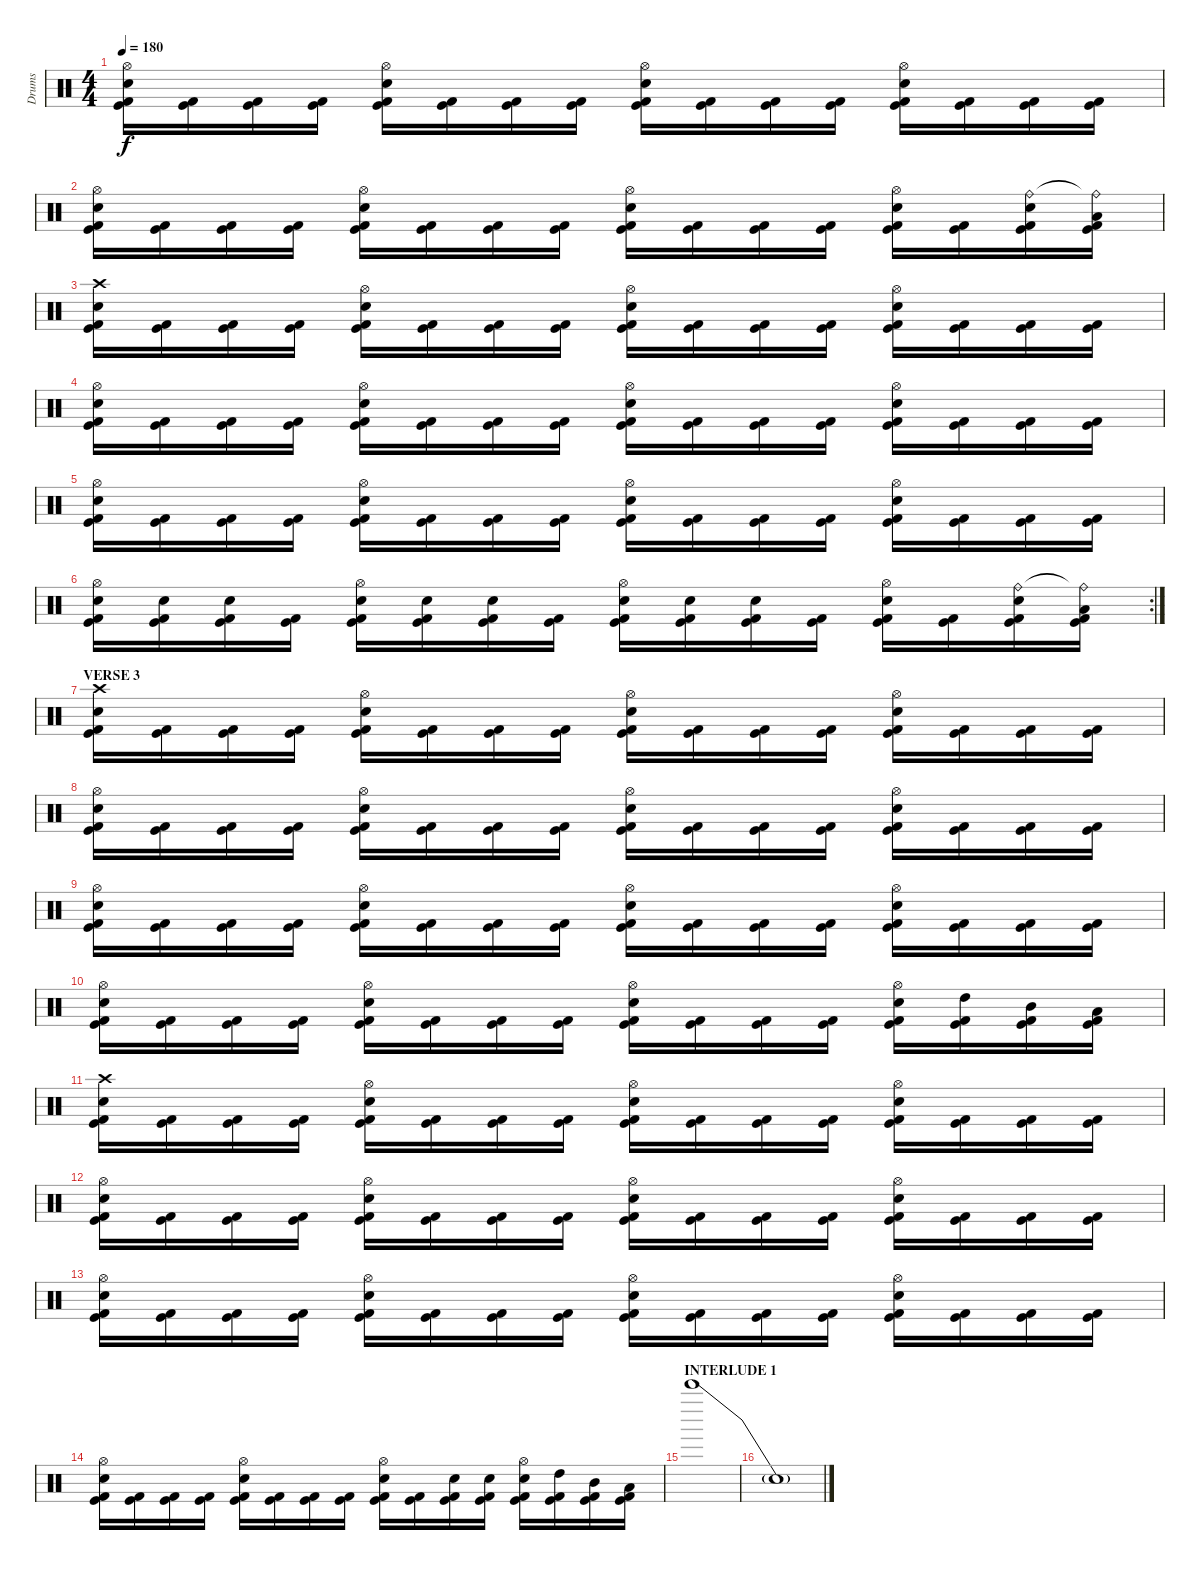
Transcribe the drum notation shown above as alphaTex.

\track ("Drums" "Drums") {instrument percussion}
\staff {score}
\articulation defaults
\ts (4 4)
\tempo 180
\clef neutral
\ks c
("Hi-Hat (open)" "Electric Snare (hit)" "Kick (hit)" "Kick (hit) 2").16{dy f} ("Kick (hit)" "Kick (hit) 2").16 ("Kick (hit)" "Kick (hit) 2").16 ("Kick (hit)" "Kick (hit) 2").16 ("Hi-Hat (open)" "Electric Snare (hit)" "Kick (hit)" "Kick (hit) 2").16 ("Kick (hit)" "Kick (hit) 2").16 ("Kick (hit)" "Kick (hit) 2").16 ("Kick (hit)" "Kick (hit) 2").16 ("Hi-Hat (open)" "Electric Snare (hit)" "Kick (hit)" "Kick (hit) 2").16 ("Kick (hit)" "Kick (hit) 2").16 ("Kick (hit)" "Kick (hit) 2").16 ("Kick (hit)" "Kick (hit) 2").16 ("Hi-Hat (open)" "Electric Snare (hit)" "Kick (hit)" "Kick (hit) 2").16 ("Kick (hit)" "Kick (hit) 2").16 ("Kick (hit)" "Kick (hit) 2").16 ("Kick (hit)" "Kick (hit) 2").16 |
("Hi-Hat (open)" "Electric Snare (hit)" "Kick (hit)" "Kick (hit) 2").16 ("Kick (hit)" "Kick (hit) 2").16 ("Kick (hit)" "Kick (hit) 2").16 ("Kick (hit)" "Kick (hit) 2").16 ("Hi-Hat (open)" "Electric Snare (hit)" "Kick (hit)" "Kick (hit) 2").16 ("Kick (hit)" "Kick (hit) 2").16 ("Kick (hit)" "Kick (hit) 2").16 ("Kick (hit)" "Kick (hit) 2").16 ("Hi-Hat (open)" "Electric Snare (hit)" "Kick (hit)" "Kick (hit) 2").16 ("Kick (hit)" "Kick (hit) 2").16 ("Kick (hit)" "Kick (hit) 2").16 ("Kick (hit)" "Kick (hit) 2").16 ("Hi-Hat (open)" "Electric Snare (hit)" "Kick (hit)" "Kick (hit) 2").16 ("Kick (hit)" "Kick (hit) 2").16 ("Ride (bell)" "Electric Snare (hit)" "Kick (hit)" "Kick (hit) 2").16 ("Ride (bell)"{t} "Low Tom (hit)" "Kick (hit)" "Kick (hit) 2").16 |
("Crash high (hit)" "Electric Snare (hit)" "Kick (hit)" "Kick (hit) 2").16 ("Kick (hit)" "Kick (hit) 2").16 ("Kick (hit)" "Kick (hit) 2").16 ("Kick (hit)" "Kick (hit) 2").16 ("Hi-Hat (open)" "Electric Snare (hit)" "Kick (hit)" "Kick (hit) 2").16 ("Kick (hit)" "Kick (hit) 2").16 ("Kick (hit)" "Kick (hit) 2").16 ("Kick (hit)" "Kick (hit) 2").16 ("Hi-Hat (open)" "Electric Snare (hit)" "Kick (hit)" "Kick (hit) 2").16 ("Kick (hit)" "Kick (hit) 2").16 ("Kick (hit)" "Kick (hit) 2").16 ("Kick (hit)" "Kick (hit) 2").16 ("Hi-Hat (open)" "Electric Snare (hit)" "Kick (hit)" "Kick (hit) 2").16 ("Kick (hit)" "Kick (hit) 2").16 ("Kick (hit)" "Kick (hit) 2").16 ("Kick (hit)" "Kick (hit) 2").16 |
("Hi-Hat (open)" "Electric Snare (hit)" "Kick (hit)" "Kick (hit) 2").16 ("Kick (hit)" "Kick (hit) 2").16 ("Kick (hit)" "Kick (hit) 2").16 ("Kick (hit)" "Kick (hit) 2").16 ("Hi-Hat (open)" "Electric Snare (hit)" "Kick (hit)" "Kick (hit) 2").16 ("Kick (hit)" "Kick (hit) 2").16 ("Kick (hit)" "Kick (hit) 2").16 ("Kick (hit)" "Kick (hit) 2").16 ("Hi-Hat (open)" "Electric Snare (hit)" "Kick (hit)" "Kick (hit) 2").16 ("Kick (hit)" "Kick (hit) 2").16 ("Kick (hit)" "Kick (hit) 2").16 ("Kick (hit)" "Kick (hit) 2").16 ("Hi-Hat (open)" "Electric Snare (hit)" "Kick (hit)" "Kick (hit) 2").16 ("Kick (hit)" "Kick (hit) 2").16 ("Kick (hit)" "Kick (hit) 2").16 ("Kick (hit)" "Kick (hit) 2").16 |
("Hi-Hat (open)" "Electric Snare (hit)" "Kick (hit)" "Kick (hit) 2").16 ("Kick (hit)" "Kick (hit) 2").16 ("Kick (hit)" "Kick (hit) 2").16 ("Kick (hit)" "Kick (hit) 2").16 ("Hi-Hat (open)" "Electric Snare (hit)" "Kick (hit)" "Kick (hit) 2").16 ("Kick (hit)" "Kick (hit) 2").16 ("Kick (hit)" "Kick (hit) 2").16 ("Kick (hit)" "Kick (hit) 2").16 ("Hi-Hat (open)" "Electric Snare (hit)" "Kick (hit)" "Kick (hit) 2").16 ("Kick (hit)" "Kick (hit) 2").16 ("Kick (hit)" "Kick (hit) 2").16 ("Kick (hit)" "Kick (hit) 2").16 ("Hi-Hat (open)" "Electric Snare (hit)" "Kick (hit)" "Kick (hit) 2").16 ("Kick (hit)" "Kick (hit) 2").16 ("Kick (hit)" "Kick (hit) 2").16 ("Kick (hit)" "Kick (hit) 2").16 |
\rc 2
("Hi-Hat (open)" "Electric Snare (hit)" "Kick (hit)" "Kick (hit) 2").16 ("Electric Snare (hit)" "Kick (hit)" "Kick (hit) 2").16 ("Electric Snare (hit)" "Kick (hit)" "Kick (hit) 2").16 ("Kick (hit)" "Kick (hit) 2").16 ("Hi-Hat (open)" "Electric Snare (hit)" "Kick (hit)" "Kick (hit) 2").16 ("Electric Snare (hit)" "Kick (hit)" "Kick (hit) 2").16 ("Electric Snare (hit)" "Kick (hit)" "Kick (hit) 2").16 ("Kick (hit)" "Kick (hit) 2").16 ("Hi-Hat (open)" "Electric Snare (hit)" "Kick (hit)" "Kick (hit) 2").16 ("Electric Snare (hit)" "Kick (hit)" "Kick (hit) 2").16 ("Electric Snare (hit)" "Kick (hit)" "Kick (hit) 2").16 ("Kick (hit)" "Kick (hit) 2").16 ("Hi-Hat (open)" "Electric Snare (hit)" "Kick (hit)" "Kick (hit) 2").16 ("Kick (hit)" "Kick (hit) 2").16 ("Ride (bell)" "Electric Snare (hit)" "Kick (hit)" "Kick (hit) 2").16 ("Ride (bell)"{t} "Low Tom (hit)" "Kick (hit)" "Kick (hit) 2").16 |
\section ("" "VERSE 3")
("Crash high (hit)" "Electric Snare (hit)" "Kick (hit)" "Kick (hit) 2").16 ("Kick (hit)" "Kick (hit) 2").16 ("Kick (hit)" "Kick (hit) 2").16 ("Kick (hit)" "Kick (hit) 2").16 ("Hi-Hat (open)" "Electric Snare (hit)" "Kick (hit)" "Kick (hit) 2").16 ("Kick (hit)" "Kick (hit) 2").16 ("Kick (hit)" "Kick (hit) 2").16 ("Kick (hit)" "Kick (hit) 2").16 ("Hi-Hat (open)" "Electric Snare (hit)" "Kick (hit)" "Kick (hit) 2").16 ("Kick (hit)" "Kick (hit) 2").16 ("Kick (hit)" "Kick (hit) 2").16 ("Kick (hit)" "Kick (hit) 2").16 ("Hi-Hat (open)" "Electric Snare (hit)" "Kick (hit)" "Kick (hit) 2").16 ("Kick (hit)" "Kick (hit) 2").16 ("Kick (hit)" "Kick (hit) 2").16 ("Kick (hit)" "Kick (hit) 2").16 |
("Hi-Hat (open)" "Electric Snare (hit)" "Kick (hit)" "Kick (hit) 2").16 ("Kick (hit)" "Kick (hit) 2").16 ("Kick (hit)" "Kick (hit) 2").16 ("Kick (hit)" "Kick (hit) 2").16 ("Hi-Hat (open)" "Electric Snare (hit)" "Kick (hit)" "Kick (hit) 2").16 ("Kick (hit)" "Kick (hit) 2").16 ("Kick (hit)" "Kick (hit) 2").16 ("Kick (hit)" "Kick (hit) 2").16 ("Hi-Hat (open)" "Electric Snare (hit)" "Kick (hit)" "Kick (hit) 2").16 ("Kick (hit)" "Kick (hit) 2").16 ("Kick (hit)" "Kick (hit) 2").16 ("Kick (hit)" "Kick (hit) 2").16 ("Hi-Hat (open)" "Electric Snare (hit)" "Kick (hit)" "Kick (hit) 2").16 ("Kick (hit)" "Kick (hit) 2").16 ("Kick (hit)" "Kick (hit) 2").16 ("Kick (hit)" "Kick (hit) 2").16 |
("Hi-Hat (open)" "Electric Snare (hit)" "Kick (hit)" "Kick (hit) 2").16 ("Kick (hit)" "Kick (hit) 2").16 ("Kick (hit)" "Kick (hit) 2").16 ("Kick (hit)" "Kick (hit) 2").16 ("Hi-Hat (open)" "Electric Snare (hit)" "Kick (hit)" "Kick (hit) 2").16 ("Kick (hit)" "Kick (hit) 2").16 ("Kick (hit)" "Kick (hit) 2").16 ("Kick (hit)" "Kick (hit) 2").16 ("Hi-Hat (open)" "Electric Snare (hit)" "Kick (hit)" "Kick (hit) 2").16 ("Kick (hit)" "Kick (hit) 2").16 ("Kick (hit)" "Kick (hit) 2").16 ("Kick (hit)" "Kick (hit) 2").16 ("Hi-Hat (open)" "Electric Snare (hit)" "Kick (hit)" "Kick (hit) 2").16 ("Kick (hit)" "Kick (hit) 2").16 ("Kick (hit)" "Kick (hit) 2").16 ("Kick (hit)" "Kick (hit) 2").16 |
("Hi-Hat (open)" "Electric Snare (hit)" "Kick (hit)" "Kick (hit) 2").16 ("Kick (hit)" "Kick (hit) 2").16 ("Kick (hit)" "Kick (hit) 2").16 ("Kick (hit)" "Kick (hit) 2").16 ("Hi-Hat (open)" "Electric Snare (hit)" "Kick (hit)" "Kick (hit) 2").16 ("Kick (hit)" "Kick (hit) 2").16 ("Kick (hit)" "Kick (hit) 2").16 ("Kick (hit)" "Kick (hit) 2").16 ("Hi-Hat (open)" "Electric Snare (hit)" "Kick (hit)" "Kick (hit) 2").16 ("Kick (hit)" "Kick (hit) 2").16 ("Kick (hit)" "Kick (hit) 2").16 ("Kick (hit)" "Kick (hit) 2").16 ("Hi-Hat (open)" "Electric Snare (hit)" "Kick (hit)" "Kick (hit) 2").16 ("High Tom (hit)" "Kick (hit)" "Kick (hit) 2").16 ("Mid Tom (hit)" "Kick (hit)" "Kick (hit) 2").16 ("Low Tom (hit)" "Kick (hit)" "Kick (hit) 2").16 |
("Crash high (hit)" "Electric Snare (hit)" "Kick (hit)" "Kick (hit) 2").16 ("Kick (hit)" "Kick (hit) 2").16 ("Kick (hit)" "Kick (hit) 2").16 ("Kick (hit)" "Kick (hit) 2").16 ("Hi-Hat (open)" "Electric Snare (hit)" "Kick (hit)" "Kick (hit) 2").16 ("Kick (hit)" "Kick (hit) 2").16 ("Kick (hit)" "Kick (hit) 2").16 ("Kick (hit)" "Kick (hit) 2").16 ("Hi-Hat (open)" "Electric Snare (hit)" "Kick (hit)" "Kick (hit) 2").16 ("Kick (hit)" "Kick (hit) 2").16 ("Kick (hit)" "Kick (hit) 2").16 ("Kick (hit)" "Kick (hit) 2").16 ("Hi-Hat (open)" "Electric Snare (hit)" "Kick (hit)" "Kick (hit) 2").16 ("Kick (hit)" "Kick (hit) 2").16 ("Kick (hit)" "Kick (hit) 2").16 ("Kick (hit)" "Kick (hit) 2").16 |
("Hi-Hat (open)" "Electric Snare (hit)" "Kick (hit)" "Kick (hit) 2").16 ("Kick (hit)" "Kick (hit) 2").16 ("Kick (hit)" "Kick (hit) 2").16 ("Kick (hit)" "Kick (hit) 2").16 ("Hi-Hat (open)" "Electric Snare (hit)" "Kick (hit)" "Kick (hit) 2").16 ("Kick (hit)" "Kick (hit) 2").16 ("Kick (hit)" "Kick (hit) 2").16 ("Kick (hit)" "Kick (hit) 2").16 ("Hi-Hat (open)" "Electric Snare (hit)" "Kick (hit)" "Kick (hit) 2").16 ("Kick (hit)" "Kick (hit) 2").16 ("Kick (hit)" "Kick (hit) 2").16 ("Kick (hit)" "Kick (hit) 2").16 ("Hi-Hat (open)" "Electric Snare (hit)" "Kick (hit)" "Kick (hit) 2").16 ("Kick (hit)" "Kick (hit) 2").16 ("Kick (hit)" "Kick (hit) 2").16 ("Kick (hit)" "Kick (hit) 2").16 |
("Hi-Hat (open)" "Electric Snare (hit)" "Kick (hit)" "Kick (hit) 2").16 ("Kick (hit)" "Kick (hit) 2").16 ("Kick (hit)" "Kick (hit) 2").16 ("Kick (hit)" "Kick (hit) 2").16 ("Hi-Hat (open)" "Electric Snare (hit)" "Kick (hit)" "Kick (hit) 2").16 ("Kick (hit)" "Kick (hit) 2").16 ("Kick (hit)" "Kick (hit) 2").16 ("Kick (hit)" "Kick (hit) 2").16 ("Hi-Hat (open)" "Electric Snare (hit)" "Kick (hit)" "Kick (hit) 2").16 ("Kick (hit)" "Kick (hit) 2").16 ("Kick (hit)" "Kick (hit) 2").16 ("Kick (hit)" "Kick (hit) 2").16 ("Hi-Hat (open)" "Electric Snare (hit)" "Kick (hit)" "Kick (hit) 2").16 ("Kick (hit)" "Kick (hit) 2").16 ("Kick (hit)" "Kick (hit) 2").16 ("Kick (hit)" "Kick (hit) 2").16 |
("Hi-Hat (open)" "Electric Snare (hit)" "Kick (hit)" "Kick (hit) 2").16 ("Kick (hit)" "Kick (hit) 2").16 ("Kick (hit)" "Kick (hit) 2").16 ("Kick (hit)" "Kick (hit) 2").16 ("Hi-Hat (open)" "Electric Snare (hit)" "Kick (hit)" "Kick (hit) 2").16 ("Kick (hit)" "Kick (hit) 2").16 ("Kick (hit)" "Kick (hit) 2").16 ("Kick (hit)" "Kick (hit) 2").16 ("Hi-Hat (open)" "Electric Snare (hit)" "Kick (hit)" "Kick (hit) 2").16 ("Kick (hit)" "Kick (hit) 2").16 ("Electric Snare (hit)" "Kick (hit)" "Kick (hit) 2").16 ("Electric Snare (hit)" "Kick (hit)" "Kick (hit) 2").16 ("Hi-Hat (open)" "Electric Snare (hit)" "Kick (hit)" "Kick (hit) 2").16 ("High Tom (hit)" "Kick (hit)" "Kick (hit) 2").16 ("Mid Tom (hit)" "Kick (hit)" "Kick (hit) 2").16 ("Low Tom (hit)" "Kick (hit)" "Kick (hit) 2").16 |
\section ("" "INTERLUDE 1")
"Bell Tree (hit)"{be (bend 0 0 60 12)}.1 |
"Snare (hit)"{t}.1
